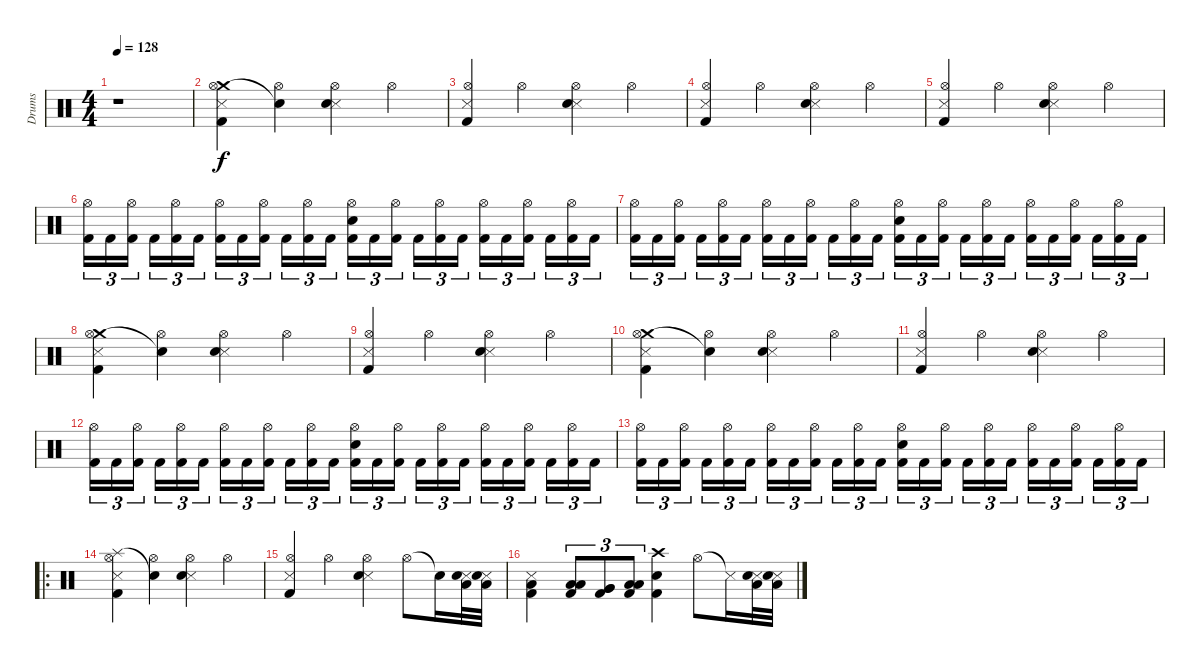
\track ("Drums" "Drums") {instrument percussion}
\staff {score}
\articulation defaults
\ts (4 4)
\tempo 128
\clef neutral
\ks c
r.1{dy f} |
("Crash medium (hit)" "Snare (side stick) 3" "Hi-Hat (open)" "Kick (hit) 2").4 ("Snare (hit)"{t} "Hi-Hat (open)").4 ("Snare (side stick) 3" "Hi-Hat (open)" "Electric Snare (hit)").4 "Hi-Hat (open)".4 |
("Snare (side stick) 3" "Hi-Hat (open)" "Kick (hit) 2").4 "Hi-Hat (open)".4 ("Snare (side stick) 3" "Hi-Hat (open)" "Electric Snare (hit)").4 "Hi-Hat (open)".4 |
("Snare (side stick) 3" "Hi-Hat (open)" "Kick (hit) 2").4 "Hi-Hat (open)".4 ("Snare (side stick) 3" "Hi-Hat (open)" "Electric Snare (hit)").4 "Hi-Hat (open)".4 |
("Snare (side stick) 3" "Hi-Hat (open)" "Kick (hit) 2").4 "Hi-Hat (open)".4 ("Snare (side stick) 3" "Hi-Hat (open)" "Electric Snare (hit)").4 "Hi-Hat (open)".4 |
("Hi-Hat (open)" "Kick (hit) 2").16{tu (3 2)} "Kick (hit) 2".16{tu (3 2)} ("Hi-Hat (open)" "Kick (hit) 2").16{tu (3 2) beam splitsecondary} "Kick (hit) 2".16{tu (3 2)} ("Hi-Hat (open)" "Kick (hit) 2").16{tu (3 2)} "Kick (hit) 2".16{tu (3 2)} ("Hi-Hat (open)" "Kick (hit) 2").16{tu (3 2)} "Kick (hit) 2".16{tu (3 2)} ("Hi-Hat (open)" "Kick (hit) 2").16{tu (3 2) beam splitsecondary} "Kick (hit) 2".16{tu (3 2)} ("Hi-Hat (open)" "Kick (hit) 2").16{tu (3 2)} "Kick (hit) 2".16{tu (3 2)} ("Hi-Hat (open)" "Electric Snare (hit)" "Kick (hit) 2").16{tu (3 2)} "Kick (hit) 2".16{tu (3 2)} ("Hi-Hat (open)" "Kick (hit) 2").16{tu (3 2) beam splitsecondary} "Kick (hit) 2".16{tu (3 2)} ("Hi-Hat (open)" "Kick (hit) 2").16{tu (3 2)} "Kick (hit) 2".16{tu (3 2)} ("Hi-Hat (open)" "Kick (hit) 2").16{tu (3 2)} "Kick (hit) 2".16{tu (3 2)} ("Hi-Hat (open)" "Kick (hit) 2").16{tu (3 2) beam splitsecondary} "Kick (hit) 2".16{tu (3 2)} ("Hi-Hat (open)" "Kick (hit) 2").16{tu (3 2)} "Kick (hit) 2".16{tu (3 2)} |
("Hi-Hat (open)" "Kick (hit) 2").16{tu (3 2)} "Kick (hit) 2".16{tu (3 2)} ("Hi-Hat (open)" "Kick (hit) 2").16{tu (3 2) beam splitsecondary} "Kick (hit) 2".16{tu (3 2)} ("Hi-Hat (open)" "Kick (hit) 2").16{tu (3 2)} "Kick (hit) 2".16{tu (3 2)} ("Hi-Hat (open)" "Kick (hit) 2").16{tu (3 2)} "Kick (hit) 2".16{tu (3 2)} ("Hi-Hat (open)" "Kick (hit) 2").16{tu (3 2) beam splitsecondary} "Kick (hit) 2".16{tu (3 2)} ("Hi-Hat (open)" "Kick (hit) 2").16{tu (3 2)} "Kick (hit) 2".16{tu (3 2)} ("Hi-Hat (open)" "Electric Snare (hit)" "Kick (hit) 2").16{tu (3 2)} "Kick (hit) 2".16{tu (3 2)} ("Hi-Hat (open)" "Kick (hit) 2").16{tu (3 2) beam splitsecondary} "Kick (hit) 2".16{tu (3 2)} ("Hi-Hat (open)" "Kick (hit) 2").16{tu (3 2)} "Kick (hit) 2".16{tu (3 2)} ("Hi-Hat (open)" "Kick (hit) 2").16{tu (3 2)} "Kick (hit) 2".16{tu (3 2)} ("Hi-Hat (open)" "Kick (hit) 2").16{tu (3 2) beam splitsecondary} "Kick (hit) 2".16{tu (3 2)} ("Hi-Hat (open)" "Kick (hit) 2").16{tu (3 2)} "Kick (hit) 2".16{tu (3 2)} |
("Crash medium (hit)" "Snare (side stick) 3" "Hi-Hat (open)" "Kick (hit) 2").4 ("Snare (hit)"{t} "Hi-Hat (open)").4 ("Snare (side stick) 3" "Hi-Hat (open)" "Electric Snare (hit)").4 "Hi-Hat (open)".4 |
("Snare (side stick) 3" "Hi-Hat (open)" "Kick (hit) 2").4 "Hi-Hat (open)".4 ("Snare (side stick) 3" "Hi-Hat (open)" "Electric Snare (hit)").4 "Hi-Hat (open)".4 |
("Crash medium (hit)" "Snare (side stick) 3" "Hi-Hat (open)" "Kick (hit) 2").4 ("Snare (hit)"{t} "Hi-Hat (open)").4 ("Snare (side stick) 3" "Hi-Hat (open)" "Electric Snare (hit)").4 "Hi-Hat (open)".4 |
("Snare (side stick) 3" "Hi-Hat (open)" "Kick (hit) 2").4 "Hi-Hat (open)".4 ("Snare (side stick) 3" "Hi-Hat (open)" "Electric Snare (hit)").4 "Hi-Hat (open)".4 |
("Hi-Hat (open)" "Kick (hit) 2").16{tu (3 2)} "Kick (hit) 2".16{tu (3 2)} ("Hi-Hat (open)" "Kick (hit) 2").16{tu (3 2) beam splitsecondary} "Kick (hit) 2".16{tu (3 2)} ("Hi-Hat (open)" "Kick (hit) 2").16{tu (3 2)} "Kick (hit) 2".16{tu (3 2)} ("Hi-Hat (open)" "Kick (hit) 2").16{tu (3 2)} "Kick (hit) 2".16{tu (3 2)} ("Hi-Hat (open)" "Kick (hit) 2").16{tu (3 2) beam splitsecondary} "Kick (hit) 2".16{tu (3 2)} ("Hi-Hat (open)" "Kick (hit) 2").16{tu (3 2)} "Kick (hit) 2".16{tu (3 2)} ("Hi-Hat (open)" "Electric Snare (hit)" "Kick (hit) 2").16{tu (3 2)} "Kick (hit) 2".16{tu (3 2)} ("Hi-Hat (open)" "Kick (hit) 2").16{tu (3 2) beam splitsecondary} "Kick (hit) 2".16{tu (3 2)} ("Hi-Hat (open)" "Kick (hit) 2").16{tu (3 2)} "Kick (hit) 2".16{tu (3 2)} ("Hi-Hat (open)" "Kick (hit) 2").16{tu (3 2)} "Kick (hit) 2".16{tu (3 2)} ("Hi-Hat (open)" "Kick (hit) 2").16{tu (3 2) beam splitsecondary} "Kick (hit) 2".16{tu (3 2)} ("Hi-Hat (open)" "Kick (hit) 2").16{tu (3 2)} "Kick (hit) 2".16{tu (3 2)} |
("Hi-Hat (open)" "Kick (hit) 2").16{tu (3 2)} "Kick (hit) 2".16{tu (3 2)} ("Hi-Hat (open)" "Kick (hit) 2").16{tu (3 2) beam splitsecondary} "Kick (hit) 2".16{tu (3 2)} ("Hi-Hat (open)" "Kick (hit) 2").16{tu (3 2)} "Kick (hit) 2".16{tu (3 2)} ("Hi-Hat (open)" "Kick (hit) 2").16{tu (3 2)} "Kick (hit) 2".16{tu (3 2)} ("Hi-Hat (open)" "Kick (hit) 2").16{tu (3 2) beam splitsecondary} "Kick (hit) 2".16{tu (3 2)} ("Hi-Hat (open)" "Kick (hit) 2").16{tu (3 2)} "Kick (hit) 2".16{tu (3 2)} ("Hi-Hat (open)" "Electric Snare (hit)" "Kick (hit) 2").16{tu (3 2)} "Kick (hit) 2".16{tu (3 2)} ("Hi-Hat (open)" "Kick (hit) 2").16{tu (3 2) beam splitsecondary} "Kick (hit) 2".16{tu (3 2)} ("Hi-Hat (open)" "Kick (hit) 2").16{tu (3 2)} "Kick (hit) 2".16{tu (3 2)} ("Hi-Hat (open)" "Kick (hit) 2").16{tu (3 2)} "Kick (hit) 2".16{tu (3 2)} ("Hi-Hat (open)" "Kick (hit) 2").16{tu (3 2) beam splitsecondary} "Kick (hit) 2".16{tu (3 2)} ("Hi-Hat (open)" "Kick (hit) 2").16{tu (3 2)} "Kick (hit) 2".16{tu (3 2)} |
\ro
("Splash (hit)" "Snare (side stick) 3" "Hi-Hat (open)" "Kick (hit) 2").4 ("Snare (hit)"{t} "Hi-Hat (open)").4 ("Snare (side stick) 3" "Hi-Hat (open)" "Electric Snare (hit)").4 "Hi-Hat (open)".4 |
("Snare (side stick) 3" "Hi-Hat (open)" "Kick (hit) 2").4 "Hi-Hat (open)".4 ("Snare (side stick) 3" "Hi-Hat (open)" "Electric Snare (hit)").4 "Hi-Hat (open)".8 "Snare (hit)"{t}.16 ("Snare (side stick) 3" "Low Floor Tom (hit)" "Electric Snare (hit)").32 ("Snare (side stick) 3" "Low Floor Tom (hit)" "Electric Snare (hit)").32 |
("Snare (side stick) 3" "Low Floor Tom (hit)" "Kick (hit) 2").4 ("Low Tom (hit)" "Low Tom (hit)" "Kick (hit) 2").8{tu (3 2)} ("Very Low Tom (hit)" "Very Low Tom (hit)" "Kick (hit) 2").8{tu (3 2)} ("Low Floor Tom (hit)" "Low Floor Tom (hit)" "Kick (hit) 2").8{tu (3 2)} ("Crash high (hit)" "Electric Snare (hit)" "Kick (hit) 2").4 "Hi-Hat (open)".8 "Snare (side stick) 3"{t}.16 ("Snare (side stick) 3" "Low Floor Tom (hit)" "Electric Snare (hit)").32 ("Snare (side stick) 3" "Low Floor Tom (hit)" "Electric Snare (hit)").32
